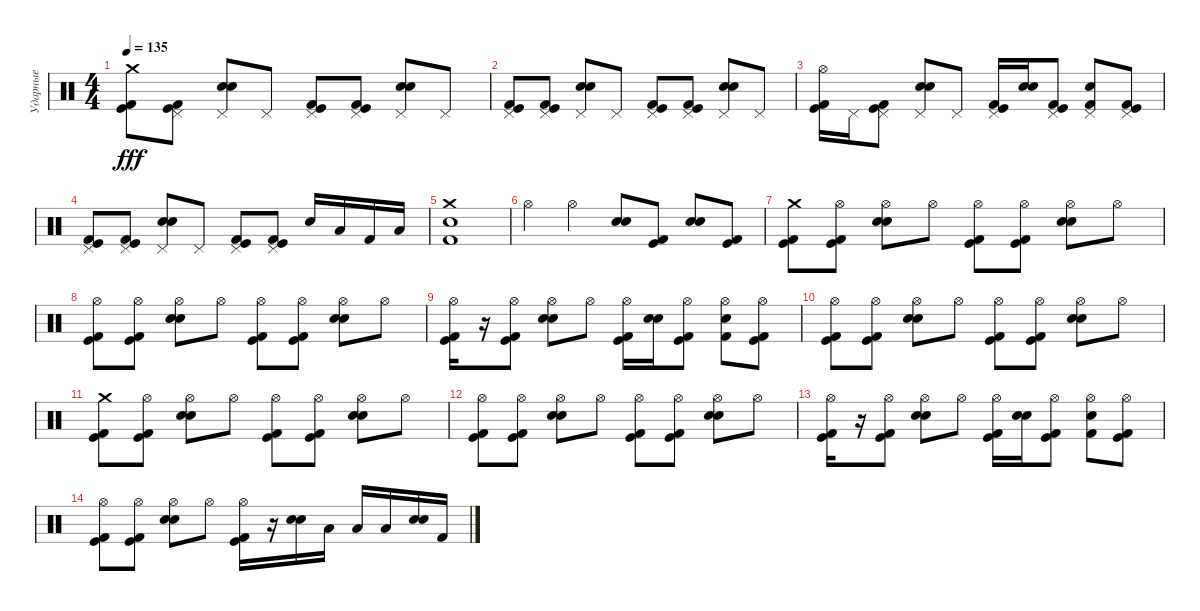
\track ("Ударные" "Ударные") {instrument percussion}
\staff {score}
\articulation defaults
\ts (4 4)
\tempo 135
\clef neutral
\ks c
("Crash medium (hit)" "Kick (hit)" "Kick (hit) 2").8{dy fff} ("Pedal Hi-Hat (hit)" "Kick (hit)" "Kick (hit) 2").8 ("Pedal Hi-Hat (hit)" "Snare (hit) 2" "Electric Snare (hit)").8 "Pedal Hi-Hat (hit)".8 ("Pedal Hi-Hat (hit)" "Kick (hit)" "Kick (hit) 2").8 ("Pedal Hi-Hat (hit)" "Kick (hit)" "Kick (hit) 2").8 ("Pedal Hi-Hat (hit)" "Snare (hit) 2" "Electric Snare (hit)").8 "Pedal Hi-Hat (hit)".8 |
("Pedal Hi-Hat (hit)" "Kick (hit)" "Kick (hit) 2").8 ("Pedal Hi-Hat (hit)" "Kick (hit)" "Kick (hit) 2").8 ("Pedal Hi-Hat (hit)" "Snare (hit) 2" "Electric Snare (hit)").8 "Pedal Hi-Hat (hit)".8 ("Pedal Hi-Hat (hit)" "Kick (hit)" "Kick (hit) 2").8 ("Pedal Hi-Hat (hit)" "Kick (hit)" "Kick (hit) 2").8 ("Pedal Hi-Hat (hit)" "Snare (hit) 2" "Electric Snare (hit)").8 "Pedal Hi-Hat (hit)".8 |
("Hi-Hat (open)" "Kick (hit)" "Kick (hit) 2").16 "Pedal Hi-Hat (hit)".16 ("Pedal Hi-Hat (hit)" "Kick (hit)" "Kick (hit) 2").8 ("Pedal Hi-Hat (hit)" "Snare (hit) 2" "Electric Snare (hit)").8 "Pedal Hi-Hat (hit)".8 ("Pedal Hi-Hat (hit)" "Kick (hit)" "Kick (hit) 2").16 ("Snare (hit) 2" "Electric Snare (hit)").16 ("Pedal Hi-Hat (hit)" "Kick (hit)" "Kick (hit) 2").8 ("Pedal Hi-Hat (hit)" "Kick (hit) 2" "Electric Snare (hit)").8 ("Pedal Hi-Hat (hit)" "Kick (hit)" "Kick (hit) 2").8 |
("Pedal Hi-Hat (hit)" "Kick (hit)" "Kick (hit) 2").8 ("Pedal Hi-Hat (hit)" "Kick (hit)" "Kick (hit) 2").8 ("Pedal Hi-Hat (hit)" "Snare (hit) 2" "Electric Snare (hit)").8 "Pedal Hi-Hat (hit)".8 ("Pedal Hi-Hat (hit)" "Kick (hit)" "Kick (hit) 2").8 ("Pedal Hi-Hat (hit)" "Kick (hit)" "Kick (hit) 2").8 "Electric Snare (hit)".16 "Low Tom (hit)".16 "Kick (hit) 2".16 "Low Floor Tom (hit)".16 |
("Crash medium (hit)" "Electric Snare (hit)" "Kick (hit) 2").1 |
"Hi-Hat (open)".4 "Hi-Hat (open)".4 ("Electric Snare (hit)" "Snare (hit) 2").8 ("Kick (hit)" "Kick (hit) 2").8 ("Snare (hit) 2" "Electric Snare (hit)").8 ("Kick (hit)" "Kick (hit) 2").8 |
("Crash medium (hit)" "Kick (hit)" "Kick (hit) 2").8 ("Hi-Hat (open)" "Kick (hit)" "Kick (hit) 2").8 ("Hi-Hat (open)" "Snare (hit) 2" "Electric Snare (hit)").8 "Hi-Hat (open)".8 ("Hi-Hat (open)" "Kick (hit)" "Kick (hit) 2").8 ("Hi-Hat (open)" "Kick (hit)" "Kick (hit) 2").8 ("Hi-Hat (open)" "Snare (hit) 2" "Electric Snare (hit)").8 "Hi-Hat (open)".8 |
("Hi-Hat (open)" "Kick (hit)" "Kick (hit) 2").8 ("Hi-Hat (open)" "Kick (hit)" "Kick (hit) 2").8 ("Hi-Hat (open)" "Snare (hit) 2" "Electric Snare (hit)").8 "Hi-Hat (open)".8 ("Hi-Hat (open)" "Kick (hit)" "Kick (hit) 2").8 ("Hi-Hat (open)" "Kick (hit)" "Kick (hit) 2").8 ("Hi-Hat (open)" "Snare (hit) 2" "Electric Snare (hit)").8 "Hi-Hat (open)".8 |
("Hi-Hat (open)" "Kick (hit)" "Kick (hit) 2").16 r.16 ("Hi-Hat (open)" "Kick (hit)" "Kick (hit) 2").8 ("Hi-Hat (open)" "Snare (hit) 2" "Electric Snare (hit)").8 "Hi-Hat (open)".8 ("Hi-Hat (open)" "Kick (hit)" "Kick (hit) 2").16 ("Snare (hit) 2" "Electric Snare (hit)").16 ("Hi-Hat (open)" "Kick (hit)" "Kick (hit) 2").8 ("Hi-Hat (open)" "Kick (hit) 2" "Electric Snare (hit)").8 ("Hi-Hat (open)" "Kick (hit)" "Kick (hit) 2").8 |
("Hi-Hat (open)" "Kick (hit)" "Kick (hit) 2").8 ("Hi-Hat (open)" "Kick (hit)" "Kick (hit) 2").8 ("Hi-Hat (open)" "Snare (hit) 2" "Electric Snare (hit)").8 "Hi-Hat (open)".8 ("Hi-Hat (open)" "Kick (hit)" "Kick (hit) 2").8 ("Hi-Hat (open)" "Kick (hit)" "Kick (hit) 2").8 ("Hi-Hat (open)" "Snare (hit) 2" "Electric Snare (hit)").8 "Hi-Hat (open)".8 |
("Crash medium (hit)" "Kick (hit)" "Kick (hit) 2").8 ("Hi-Hat (open)" "Kick (hit)" "Kick (hit) 2").8 ("Hi-Hat (open)" "Snare (hit) 2" "Electric Snare (hit)").8 "Hi-Hat (open)".8 ("Hi-Hat (open)" "Kick (hit)" "Kick (hit) 2").8 ("Hi-Hat (open)" "Kick (hit)" "Kick (hit) 2").8 ("Hi-Hat (open)" "Snare (hit) 2" "Electric Snare (hit)").8 "Hi-Hat (open)".8 |
("Hi-Hat (open)" "Kick (hit)" "Kick (hit) 2").8 ("Hi-Hat (open)" "Kick (hit)" "Kick (hit) 2").8 ("Hi-Hat (open)" "Snare (hit) 2" "Electric Snare (hit)").8 "Hi-Hat (open)".8 ("Hi-Hat (open)" "Kick (hit)" "Kick (hit) 2").8 ("Hi-Hat (open)" "Kick (hit)" "Kick (hit) 2").8 ("Hi-Hat (open)" "Snare (hit) 2" "Electric Snare (hit)").8 "Hi-Hat (open)".8 |
("Hi-Hat (open)" "Kick (hit)" "Kick (hit) 2").16 r.16 ("Hi-Hat (open)" "Kick (hit)" "Kick (hit) 2").8 ("Hi-Hat (open)" "Snare (hit) 2" "Electric Snare (hit)").8 "Hi-Hat (open)".8 ("Hi-Hat (open)" "Kick (hit)" "Kick (hit) 2").16 ("Snare (hit) 2" "Electric Snare (hit)").16 ("Hi-Hat (open)" "Kick (hit)" "Kick (hit) 2").8 ("Hi-Hat (open)" "Kick (hit) 2" "Electric Snare (hit)").8 ("Hi-Hat (open)" "Kick (hit)" "Kick (hit) 2").8 |
("Hi-Hat (open)" "Kick (hit)" "Kick (hit) 2").8 ("Hi-Hat (open)" "Kick (hit)" "Kick (hit) 2").8 ("Hi-Hat (open)" "Snare (hit) 2" "Electric Snare (hit)").8 "Hi-Hat (open)".8 ("Hi-Hat (open)" "Kick (hit)" "Kick (hit) 2").16 r.16 ("Electric Snare (hit)" "Snare (hit) 2").16 "Low Floor Tom (hit)".16 "Low Floor Tom (hit)".16 "Low Floor Tom (hit)".16 ("Snare (hit) 2" "Electric Snare (hit)").16 "Kick (hit) 2".16
